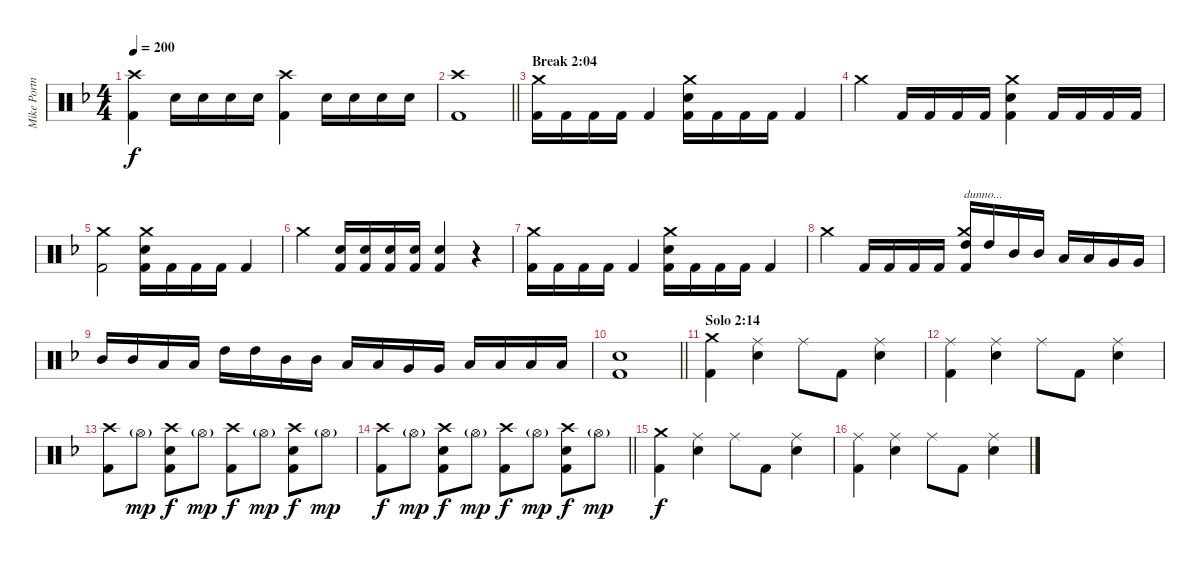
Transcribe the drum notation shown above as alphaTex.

\track ("Mike Portnoy (Drums)" "Mike Portn") {instrument percussion}
\staff {score}
\articulation defaults
\ts (4 4)
\tempo 200
\clef neutral
\ks f
("Crash high (hit)" "Kick (hit) 2").4{dy f} "Electric Snare (hit)".16 "Electric Snare (hit)".16 "Electric Snare (hit)".16 "Electric Snare (hit)".16 ("Crash high (hit)" "Kick (hit) 2").4 "Electric Snare (hit)".16 "Electric Snare (hit)".16 "Electric Snare (hit)".16 "Electric Snare (hit)".16 |
\barLineRight lightlight
("Crash high (hit)" "Kick (hit) 2").1 |
\section ("" "Break 2:04")
("Crash medium (hit)" "Kick (hit) 2").16 "Kick (hit) 2".16 "Kick (hit) 2".16 "Kick (hit) 2".16 "Kick (hit) 2".4 ("Crash medium (hit)" "Electric Snare (hit)" "Kick (hit) 2").16 "Kick (hit) 2".16 "Kick (hit) 2".16 "Kick (hit) 2".16 "Kick (hit) 2".4 |
"Crash medium (hit)".4 "Kick (hit) 2".16 "Kick (hit) 2".16 "Kick (hit) 2".16 "Kick (hit) 2".16 ("Crash medium (hit)" "Electric Snare (hit)" "Kick (hit) 2").4 "Kick (hit) 2".16 "Kick (hit) 2".16 "Kick (hit) 2".16 "Kick (hit) 2".16 |
("Crash medium (hit)" "Kick (hit) 2").2 ("Crash medium (hit)" "Electric Snare (hit)" "Kick (hit) 2").16 "Kick (hit) 2".16 "Kick (hit) 2".16 "Kick (hit) 2".16 "Kick (hit) 2".4 |
"Crash medium (hit)".4 ("Electric Snare (hit)" "Kick (hit) 2").16 ("Electric Snare (hit)" "Kick (hit) 2").16 ("Electric Snare (hit)" "Kick (hit) 2").16 ("Electric Snare (hit)" "Kick (hit) 2").16 ("Electric Snare (hit)" "Kick (hit) 2").4 r.4 |
("Crash medium (hit)" "Kick (hit) 2").16 "Kick (hit) 2".16 "Kick (hit) 2".16 "Kick (hit) 2".16 "Kick (hit) 2".4 ("Crash medium (hit)" "Electric Snare (hit)" "Kick (hit) 2").16 "Kick (hit) 2".16 "Kick (hit) 2".16 "Kick (hit) 2".16 "Kick (hit) 2".4 |
"Crash medium (hit)".4 "Kick (hit) 2".16 "Kick (hit) 2".16 "Kick (hit) 2".16 "Kick (hit) 2".16 ("Crash medium (hit)" "High Tom (hit)" "Kick (hit) 2").16{txt "dunno..."} "High Tom (hit)".16 "Mid Tom (hit)".16 "Mid Tom (hit)".16 "Low Tom (hit)".16 "Low Tom (hit)".16 "Very Low Tom (hit)".16 "Very Low Tom (hit)".16 |
"Mid Tom (hit)".16 "Mid Tom (hit)".16 "Low Tom (hit)".16 "Low Tom (hit)".16 "High Tom (hit)".16 "High Tom (hit)".16 "Mid Tom (hit)".16 "Mid Tom (hit)".16 "Low Tom (hit)".16 "Low Tom (hit)".16 "Very Low Tom (hit)".16 "Very Low Tom (hit)".16 "Low Floor Tom (hit)".16 "Low Floor Tom (hit)".16 "Low Floor Tom (hit)".16 "Low Floor Tom (hit)".16 |
\barLineRight lightlight
("Electric Snare (hit)" "Kick (hit) 2").1 |
\section ("" "Solo 2:14")
("Crash medium (hit)" "Kick (hit) 2").4 ("Ride (middle)" "Electric Snare (hit)").4 "Ride (middle)".8 "Kick (hit) 2".8 ("Ride (middle)" "Electric Snare (hit)").4 |
("Ride (middle)" "Kick (hit) 2").4 ("Ride (middle)" "Electric Snare (hit)").4 "Ride (middle)".8 "Kick (hit) 2".8 ("Ride (middle)" "Electric Snare (hit)").4 |
("Crash high (hit)" "Kick (hit) 2").8 "Hi-Hat (open)"{g}.8{dy mp} ("Crash high (hit)" "Electric Snare (hit)" "Kick (hit) 2").8{dy f} "Hi-Hat (open)"{g}.8{dy mp} ("Crash high (hit)" "Kick (hit) 2").8{dy f} "Hi-Hat (open)"{g}.8{dy mp} ("Crash high (hit)" "Electric Snare (hit)" "Kick (hit) 2").8{dy f} "Hi-Hat (open)"{g}.8{dy mp} |
\barLineRight lightlight
("Crash high (hit)" "Kick (hit) 2").8{dy f} "Hi-Hat (open)"{g}.8{dy mp} ("Crash high (hit)" "Electric Snare (hit)" "Kick (hit) 2").8{dy f} "Hi-Hat (open)"{g}.8{dy mp} ("Crash high (hit)" "Kick (hit) 2").8{dy f} "Hi-Hat (open)"{g}.8{dy mp} ("Crash high (hit)" "Electric Snare (hit)" "Kick (hit) 2").8{dy f} "Hi-Hat (open)"{g}.8{dy mp} |
("Crash medium (hit)" "Kick (hit) 2").4{dy f} ("Ride (middle)" "Electric Snare (hit)").4 "Ride (middle)".8 "Kick (hit) 2".8 ("Ride (middle)" "Electric Snare (hit)").4 |
("Ride (middle)" "Kick (hit) 2").4 ("Ride (middle)" "Electric Snare (hit)").4 "Ride (middle)".8 "Kick (hit) 2".8 ("Ride (middle)" "Electric Snare (hit)").4
